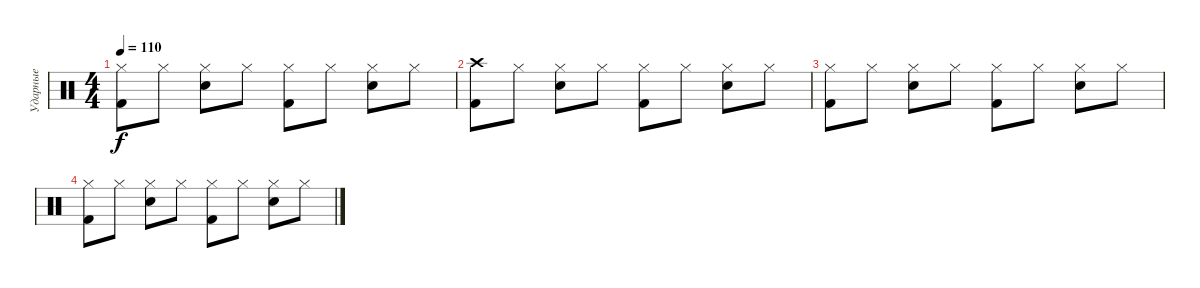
\track ("Ударные" "Ударные") {instrument percussion}
\staff {score}
\articulation defaults
\ts (4 4)
\tempo 110
\clef neutral
\ks c
("Hi-Hat (closed)" "Kick (hit) 2").8{dy f} "Hi-Hat (closed)".8 ("Hi-Hat (closed)" "Electric Snare (hit)").8 "Hi-Hat (closed)".8 ("Hi-Hat (closed)" "Kick (hit) 2").8 "Hi-Hat (closed)".8 ("Hi-Hat (closed)" "Electric Snare (hit)").8 "Hi-Hat (closed)".8 |
("Crash high (hit)" "Kick (hit) 2").8 "Hi-Hat (closed)".8 ("Hi-Hat (closed)" "Electric Snare (hit)").8 "Hi-Hat (closed)".8 ("Hi-Hat (closed)" "Kick (hit) 2").8 "Hi-Hat (closed)".8 ("Hi-Hat (closed)" "Electric Snare (hit)").8 "Hi-Hat (closed)".8 |
("Hi-Hat (closed)" "Kick (hit) 2").8 "Hi-Hat (closed)".8 ("Hi-Hat (closed)" "Electric Snare (hit)").8 "Hi-Hat (closed)".8 ("Hi-Hat (closed)" "Kick (hit) 2").8 "Hi-Hat (closed)".8 ("Hi-Hat (closed)" "Electric Snare (hit)").8 "Hi-Hat (closed)".8 |
("Hi-Hat (closed)" "Kick (hit) 2").8 "Hi-Hat (closed)".8 ("Hi-Hat (closed)" "Electric Snare (hit)").8 "Hi-Hat (closed)".8 ("Hi-Hat (closed)" "Kick (hit) 2").8 "Hi-Hat (closed)".8 ("Hi-Hat (closed)" "Electric Snare (hit)").8 "Hi-Hat (closed)".8
